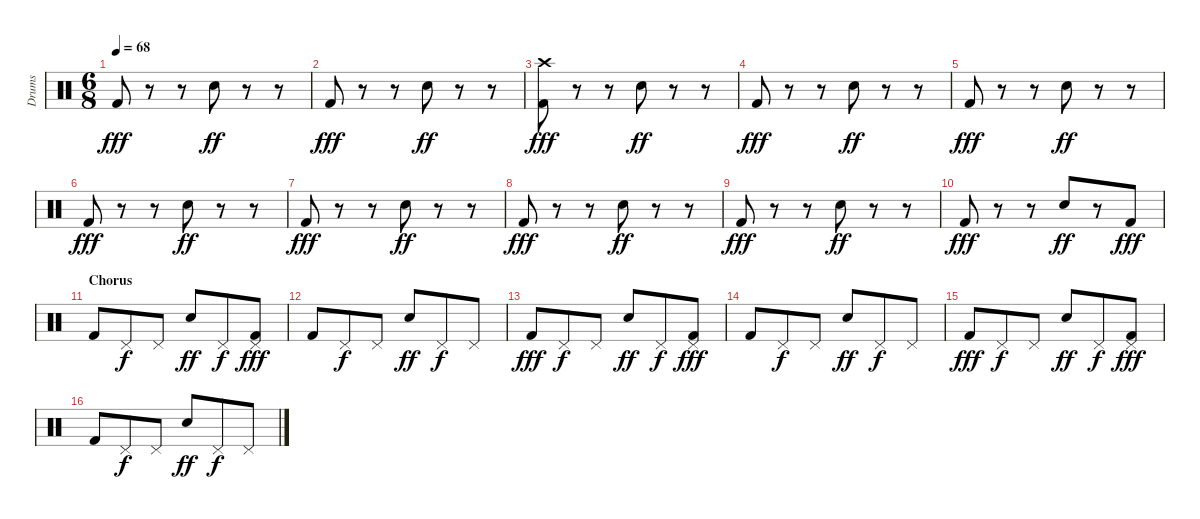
\track ("Drums" "Drums") {instrument percussion}
\staff {score}
\articulation defaults
\ts (6 8)
\tempo 68
\clef neutral
\ks c "Kick (hit) 2".8{dy fff}
r.8 r.8 "Snare (hit) 2".8{dy ff} r.8 r.8 |
"Kick (hit) 2".8{dy fff} r.8 r.8 "Snare (hit) 2".8{dy ff} r.8 r.8 |
("Crash high (hit)" "Kick (hit) 2").8{dy fff} r.8 r.8 "Snare (hit) 2".8{dy ff} r.8 r.8 |
"Kick (hit) 2".8{dy fff} r.8 r.8 "Snare (hit) 2".8{dy ff} r.8 r.8 |
"Kick (hit) 2".8{dy fff} r.8 r.8 "Snare (hit) 2".8{dy ff} r.8 r.8 |
"Kick (hit) 2".8{dy fff} r.8 r.8 "Snare (hit) 2".8{dy ff} r.8 r.8 |
"Kick (hit) 2".8{dy fff} r.8 r.8 "Snare (hit) 2".8{dy ff} r.8 r.8 |
"Kick (hit) 2".8{dy fff} r.8 r.8 "Snare (hit) 2".8{dy ff} r.8 r.8 |
"Kick (hit) 2".8{dy fff} r.8 r.8 "Snare (hit) 2".8{dy ff} r.8 r.8 |
"Kick (hit) 2".8{dy fff} r.8 r.8 "Snare (hit) 2".8{dy ff} r.8 "Kick (hit) 2".8{dy fff} |
\section ("" "Chorus")
"Kick (hit) 2".8 "Pedal Hi-Hat (hit)".8{dy f} "Pedal Hi-Hat (hit)".8 "Snare (hit) 2".8{dy ff} "Pedal Hi-Hat (hit)".8{dy f} ("Pedal Hi-Hat (hit)" "Kick (hit) 2").8{dy fff} |
"Kick (hit) 2".8 "Pedal Hi-Hat (hit)".8{dy f} "Pedal Hi-Hat (hit)".8 "Snare (hit) 2".8{dy ff} "Pedal Hi-Hat (hit)".8{dy f} "Pedal Hi-Hat (hit)".8 |
"Kick (hit) 2".8{dy fff} "Pedal Hi-Hat (hit)".8{dy f} "Pedal Hi-Hat (hit)".8 "Snare (hit) 2".8{dy ff} "Pedal Hi-Hat (hit)".8{dy f} ("Pedal Hi-Hat (hit)" "Kick (hit) 2").8{dy fff} |
"Kick (hit) 2".8 "Pedal Hi-Hat (hit)".8{dy f} "Pedal Hi-Hat (hit)".8 "Snare (hit) 2".8{dy ff} "Pedal Hi-Hat (hit)".8{dy f} "Pedal Hi-Hat (hit)".8 |
"Kick (hit) 2".8{dy fff} "Pedal Hi-Hat (hit)".8{dy f} "Pedal Hi-Hat (hit)".8 "Snare (hit) 2".8{dy ff} "Pedal Hi-Hat (hit)".8{dy f} ("Pedal Hi-Hat (hit)" "Kick (hit) 2").8{dy fff} |
"Kick (hit) 2".8 "Pedal Hi-Hat (hit)".8{dy f} "Pedal Hi-Hat (hit)".8 "Snare (hit) 2".8{dy ff} "Pedal Hi-Hat (hit)".8{dy f} "Pedal Hi-Hat (hit)".8
